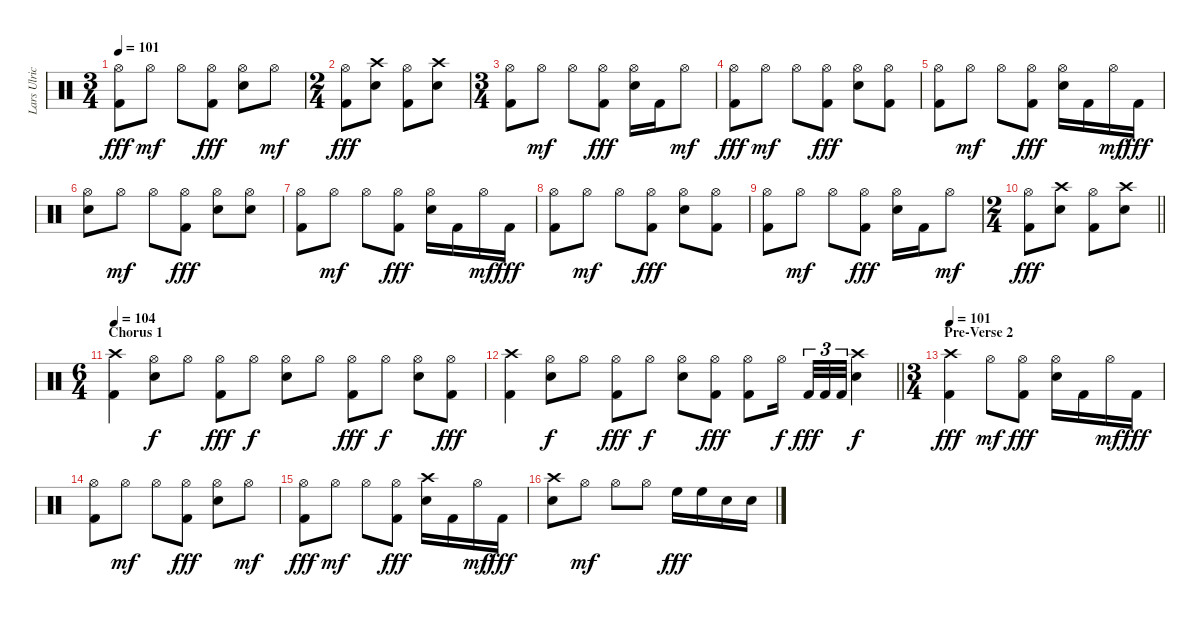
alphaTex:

\track ("Lars Ulrich" "Lars Ulric") {instrument percussion}
\staff {score}
\articulation defaults
\ts (3 4)
\tempo 101
\clef neutral
\ks c
("Hi-Hat (open)" "Kick (hit) 2").8{dy fff} "Hi-Hat (open)".8{dy mf} "Hi-Hat (open)".8 ("Hi-Hat (open)" "Kick (hit) 2").8{dy fff} ("Hi-Hat (open)" "Electric Snare (hit)").8 "Hi-Hat (open)".8{dy mf} |
\ts (2 4)
("Hi-Hat (open)" "Kick (hit) 2").8{dy fff} ("Crash high (hit)" "Electric Snare (hit)").8 ("Hi-Hat (open)" "Kick (hit) 2").8 ("Crash high (hit)" "Electric Snare (hit)").8 |
\ts (3 4)
("Hi-Hat (open)" "Kick (hit) 2").8 "Hi-Hat (open)".8{dy mf} "Hi-Hat (open)".8 ("Hi-Hat (open)" "Kick (hit) 2").8{dy fff} ("Hi-Hat (open)" "Electric Snare (hit)").16 "Kick (hit) 2".16 "Hi-Hat (open)".8{dy mf} |
("Hi-Hat (open)" "Kick (hit) 2").8{dy fff} "Hi-Hat (open)".8{dy mf} "Hi-Hat (open)".8 ("Hi-Hat (open)" "Kick (hit) 2").8{dy fff} ("Hi-Hat (open)" "Electric Snare (hit)").8 ("Hi-Hat (open)" "Kick (hit) 2").8 |
("Hi-Hat (open)" "Kick (hit) 2").8 "Hi-Hat (open)".8{dy mf} "Hi-Hat (open)".8 ("Hi-Hat (open)" "Kick (hit) 2").8{dy fff} ("Hi-Hat (open)" "Electric Snare (hit)").16 "Kick (hit) 2".16 "Hi-Hat (open)".16{dy mf} "Kick (hit) 2".16{dy fff} |
("Hi-Hat (open)" "Electric Snare (hit)").8 "Hi-Hat (open)".8{dy mf} "Hi-Hat (open)".8 ("Hi-Hat (open)" "Kick (hit) 2").8{dy fff} ("Hi-Hat (open)" "Electric Snare (hit)").8 ("Hi-Hat (open)" "Electric Snare (hit)").8 |
("Hi-Hat (open)" "Kick (hit) 2").8 "Hi-Hat (open)".8{dy mf} "Hi-Hat (open)".8 ("Hi-Hat (open)" "Kick (hit) 2").8{dy fff} ("Hi-Hat (open)" "Electric Snare (hit)").16 "Kick (hit) 2".16 "Hi-Hat (open)".16{dy mf} "Kick (hit) 2".16{dy fff} |
("Hi-Hat (open)" "Kick (hit) 2").8 "Hi-Hat (open)".8{dy mf} "Hi-Hat (open)".8 ("Hi-Hat (open)" "Kick (hit) 2").8{dy fff} ("Hi-Hat (open)" "Electric Snare (hit)").8 ("Hi-Hat (open)" "Kick (hit) 2").8 |
("Hi-Hat (open)" "Kick (hit) 2").8 "Hi-Hat (open)".8{dy mf} "Hi-Hat (open)".8 ("Hi-Hat (open)" "Kick (hit) 2").8{dy fff} ("Hi-Hat (open)" "Electric Snare (hit)").16 "Kick (hit) 2".16 "Hi-Hat (open)".8{dy mf} |
\ts (2 4)
\barLineRight lightlight
("Hi-Hat (open)" "Kick (hit) 2").8{dy fff} ("Crash high (hit)" "Electric Snare (hit)").8 ("Hi-Hat (open)" "Kick (hit) 2").8 ("Crash high (hit)" "Electric Snare (hit)").8 |
\ts (6 4)
\section ("" "Chorus 1")
\tempo 104
("Crash high (hit)" "Kick (hit) 2").4 ("Hi-Hat (open)" "Electric Snare (hit)").8{dy f} "Hi-Hat (open)".8 ("Hi-Hat (open)" "Kick (hit) 2").8{dy fff} "Hi-Hat (open)".8{dy f} ("Hi-Hat (open)" "Electric Snare (hit)").8 "Hi-Hat (open)".8 ("Hi-Hat (open)" "Kick (hit) 2").8{dy fff} "Hi-Hat (open)".8{dy f} ("Hi-Hat (open)" "Electric Snare (hit)").8 ("Hi-Hat (open)" "Kick (hit) 2").8{dy fff} |
\barLineRight lightlight
("Crash high (hit)" "Kick (hit) 2").4 ("Hi-Hat (open)" "Electric Snare (hit)").8{dy f} "Hi-Hat (open)".8 ("Hi-Hat (open)" "Kick (hit) 2").8{dy fff} "Hi-Hat (open)".8{dy f} ("Hi-Hat (open)" "Electric Snare (hit)").8 ("Hi-Hat (open)" "Kick (hit) 2").8{dy fff} ("Hi-Hat (open)" "Kick (hit) 2").8 "Hi-Hat (open)".16{dy f beam splitsecondary} "Kick (hit) 2".32{tu (3 2) dy fff} "Kick (hit) 2".32{tu (3 2)} "Kick (hit) 2".32{tu (3 2)} ("Crash high (hit)" "Electric Snare (hit)").4{dy f} |
\ts (3 4)
\section ("" "Pre-Verse 2")
\tempo 101
("Crash high (hit)" "Kick (hit) 2").4{dy fff} "Hi-Hat (open)".8{dy mf} ("Hi-Hat (open)" "Kick (hit) 2").8{dy fff} ("Hi-Hat (open)" "Electric Snare (hit)").16 "Kick (hit) 2".16 "Hi-Hat (open)".16{dy mf} "Kick (hit) 2".16{dy fff} |
("Hi-Hat (open)" "Kick (hit) 2").8 "Hi-Hat (open)".8{dy mf} "Hi-Hat (open)".8 ("Hi-Hat (open)" "Kick (hit) 2").8{dy fff} ("Hi-Hat (open)" "Electric Snare (hit)").8 "Hi-Hat (open)".8{dy mf} |
("Hi-Hat (open)" "Kick (hit) 2").8{dy fff} "Hi-Hat (open)".8{dy mf} "Hi-Hat (open)".8 ("Hi-Hat (open)" "Kick (hit) 2").8{dy fff} ("Crash high (hit)" "Electric Snare (hit)").16 "Kick (hit) 2".16 "Hi-Hat (open)".16{dy mf} "Kick (hit) 2".16{dy fff} |
("Crash high (hit)" "Electric Snare (hit)").8 "Hi-Hat (open)".8{dy mf} "Hi-Hat (open)".8 "Hi-Hat (open)".8 "High Floor Tom (hit)".16{dy fff} "High Floor Tom (hit)".16 "Electric Snare (hit)".16 "Electric Snare (hit)".16
